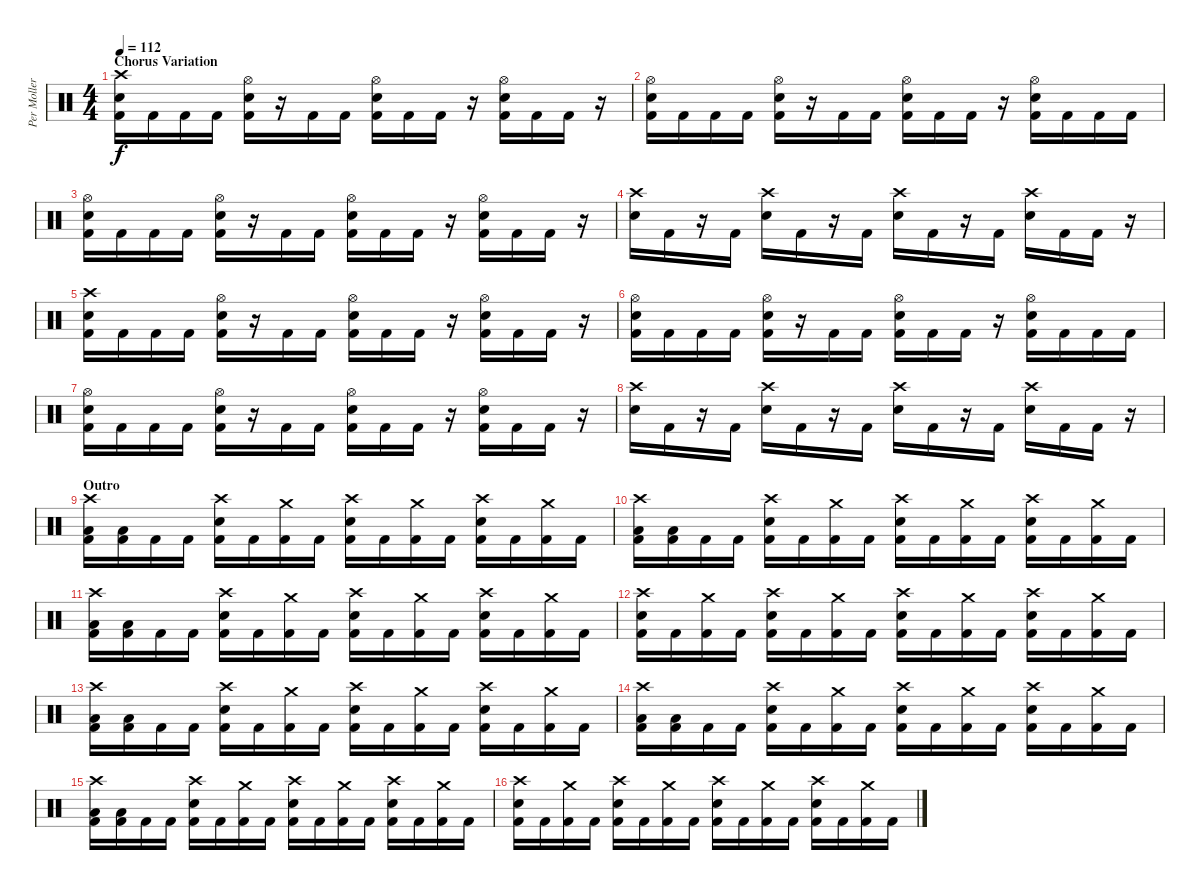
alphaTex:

\track ("Per Moller Jensen" "Per Moller") {instrument percussion}
\staff {score}
\articulation defaults
\ts (4 4)
\section ("" "Chorus Variation")
\tempo 112
\clef neutral
\ks c
("Crash high (hit)" "Electric Snare (hit)" "Kick (hit) 2").16{dy f} "Kick (hit) 2".16 "Kick (hit) 2".16 "Kick (hit) 2".16 ("Hi-Hat (open)" "Electric Snare (hit)" "Kick (hit) 2").16 r.16 "Kick (hit) 2".16 "Kick (hit) 2".16 ("Hi-Hat (open)" "Electric Snare (hit)" "Kick (hit) 2").16 "Kick (hit) 2".16 "Kick (hit) 2".16 r.16 ("Hi-Hat (open)" "Electric Snare (hit)" "Kick (hit) 2").16 "Kick (hit) 2".16 "Kick (hit) 2".16 r.16 |
("Hi-Hat (open)" "Electric Snare (hit)" "Kick (hit) 2").16 "Kick (hit) 2".16 "Kick (hit) 2".16 "Kick (hit) 2".16 ("Hi-Hat (open)" "Electric Snare (hit)" "Kick (hit) 2").16 r.16 "Kick (hit) 2".16 "Kick (hit) 2".16 ("Hi-Hat (open)" "Electric Snare (hit)" "Kick (hit) 2").16 "Kick (hit) 2".16 "Kick (hit) 2".16 r.16 ("Hi-Hat (open)" "Electric Snare (hit)" "Kick (hit) 2").16 "Kick (hit) 2".16 "Kick (hit) 2".16 "Kick (hit) 2".16 |
("Hi-Hat (open)" "Electric Snare (hit)" "Kick (hit) 2").16 "Kick (hit) 2".16 "Kick (hit) 2".16 "Kick (hit) 2".16 ("Hi-Hat (open)" "Electric Snare (hit)" "Kick (hit) 2").16 r.16 "Kick (hit) 2".16 "Kick (hit) 2".16 ("Hi-Hat (open)" "Electric Snare (hit)" "Kick (hit) 2").16 "Kick (hit) 2".16 "Kick (hit) 2".16 r.16 ("Hi-Hat (open)" "Electric Snare (hit)" "Kick (hit) 2").16 "Kick (hit) 2".16 "Kick (hit) 2".16 r.16 |
("Crash high (hit)" "Electric Snare (hit)").16 "Kick (hit) 2".16 r.16 "Kick (hit) 2".16 ("Crash high (hit)" "Electric Snare (hit)").16 "Kick (hit) 2".16 r.16 "Kick (hit) 2".16 ("Crash high (hit)" "Electric Snare (hit)").16 "Kick (hit) 2".16 r.16 "Kick (hit) 2".16 ("Crash high (hit)" "Electric Snare (hit)").16 "Kick (hit) 2".16 "Kick (hit) 2".16 r.16 |
("Crash high (hit)" "Electric Snare (hit)" "Kick (hit) 2").16 "Kick (hit) 2".16 "Kick (hit) 2".16 "Kick (hit) 2".16 ("Hi-Hat (open)" "Electric Snare (hit)" "Kick (hit) 2").16 r.16 "Kick (hit) 2".16 "Kick (hit) 2".16 ("Hi-Hat (open)" "Electric Snare (hit)" "Kick (hit) 2").16 "Kick (hit) 2".16 "Kick (hit) 2".16 r.16 ("Hi-Hat (open)" "Electric Snare (hit)" "Kick (hit) 2").16 "Kick (hit) 2".16 "Kick (hit) 2".16 r.16 |
("Hi-Hat (open)" "Electric Snare (hit)" "Kick (hit) 2").16 "Kick (hit) 2".16 "Kick (hit) 2".16 "Kick (hit) 2".16 ("Hi-Hat (open)" "Electric Snare (hit)" "Kick (hit) 2").16 r.16 "Kick (hit) 2".16 "Kick (hit) 2".16 ("Hi-Hat (open)" "Electric Snare (hit)" "Kick (hit) 2").16 "Kick (hit) 2".16 "Kick (hit) 2".16 r.16 ("Hi-Hat (open)" "Electric Snare (hit)" "Kick (hit) 2").16 "Kick (hit) 2".16 "Kick (hit) 2".16 "Kick (hit) 2".16 |
("Hi-Hat (open)" "Electric Snare (hit)" "Kick (hit) 2").16 "Kick (hit) 2".16 "Kick (hit) 2".16 "Kick (hit) 2".16 ("Hi-Hat (open)" "Electric Snare (hit)" "Kick (hit) 2").16 r.16 "Kick (hit) 2".16 "Kick (hit) 2".16 ("Hi-Hat (open)" "Electric Snare (hit)" "Kick (hit) 2").16 "Kick (hit) 2".16 "Kick (hit) 2".16 r.16 ("Hi-Hat (open)" "Electric Snare (hit)" "Kick (hit) 2").16 "Kick (hit) 2".16 "Kick (hit) 2".16 r.16 |
("Crash high (hit)" "Electric Snare (hit)").16 "Kick (hit) 2".16 r.16 "Kick (hit) 2".16 ("Crash high (hit)" "Electric Snare (hit)").16 "Kick (hit) 2".16 r.16 "Kick (hit) 2".16 ("Crash high (hit)" "Electric Snare (hit)").16 "Kick (hit) 2".16 r.16 "Kick (hit) 2".16 ("Crash high (hit)" "Electric Snare (hit)").16 "Kick (hit) 2".16 "Kick (hit) 2".16 r.16 |
\section ("" "Outro")
("Crash high (hit)" "Low Floor Tom (hit)" "Kick (hit) 2").16 ("Low Floor Tom (hit)" "Kick (hit) 2").16 "Kick (hit) 2".16 "Kick (hit) 2".16 ("Crash high (hit)" "Electric Snare (hit)" "Kick (hit) 2").16 "Kick (hit) 2".16 ("Crash medium (hit)" "Kick (hit) 2").16 "Kick (hit) 2".16 ("Crash high (hit)" "Electric Snare (hit)" "Kick (hit) 2").16 "Kick (hit) 2".16 ("Crash medium (hit)" "Kick (hit) 2").16 "Kick (hit) 2".16 ("Crash high (hit)" "Electric Snare (hit)" "Kick (hit) 2").16 "Kick (hit) 2".16 ("Crash medium (hit)" "Kick (hit) 2").16 "Kick (hit) 2".16 |
("Crash high (hit)" "Low Floor Tom (hit)" "Kick (hit) 2").16 ("Low Floor Tom (hit)" "Kick (hit) 2").16 "Kick (hit) 2".16 "Kick (hit) 2".16 ("Crash high (hit)" "Electric Snare (hit)" "Kick (hit) 2").16 "Kick (hit) 2".16 ("Crash medium (hit)" "Kick (hit) 2").16 "Kick (hit) 2".16 ("Crash high (hit)" "Electric Snare (hit)" "Kick (hit) 2").16 "Kick (hit) 2".16 ("Crash medium (hit)" "Kick (hit) 2").16 "Kick (hit) 2".16 ("Crash high (hit)" "Electric Snare (hit)" "Kick (hit) 2").16 "Kick (hit) 2".16 ("Crash medium (hit)" "Kick (hit) 2").16 "Kick (hit) 2".16 |
("Crash high (hit)" "Low Floor Tom (hit)" "Kick (hit) 2").16 ("Low Floor Tom (hit)" "Kick (hit) 2").16 "Kick (hit) 2".16 "Kick (hit) 2".16 ("Crash high (hit)" "Electric Snare (hit)" "Kick (hit) 2").16 "Kick (hit) 2".16 ("Crash medium (hit)" "Kick (hit) 2").16 "Kick (hit) 2".16 ("Crash high (hit)" "Electric Snare (hit)" "Kick (hit) 2").16 "Kick (hit) 2".16 ("Crash medium (hit)" "Kick (hit) 2").16 "Kick (hit) 2".16 ("Crash high (hit)" "Electric Snare (hit)" "Kick (hit) 2").16 "Kick (hit) 2".16 ("Crash medium (hit)" "Kick (hit) 2").16 "Kick (hit) 2".16 |
("Crash high (hit)" "Electric Snare (hit)" "Kick (hit) 2").16 "Kick (hit) 2".16 ("Crash medium (hit)" "Kick (hit) 2").16 "Kick (hit) 2".16 ("Crash high (hit)" "Electric Snare (hit)" "Kick (hit) 2").16 "Kick (hit) 2".16 ("Crash medium (hit)" "Kick (hit) 2").16 "Kick (hit) 2".16 ("Crash high (hit)" "Electric Snare (hit)" "Kick (hit) 2").16 "Kick (hit) 2".16 ("Crash medium (hit)" "Kick (hit) 2").16 "Kick (hit) 2".16 ("Crash high (hit)" "Electric Snare (hit)" "Kick (hit) 2").16 "Kick (hit) 2".16 ("Crash medium (hit)" "Kick (hit) 2").16 "Kick (hit) 2".16 |
("Crash high (hit)" "Low Floor Tom (hit)" "Kick (hit) 2").16 ("Low Floor Tom (hit)" "Kick (hit) 2").16 "Kick (hit) 2".16 "Kick (hit) 2".16 ("Crash high (hit)" "Electric Snare (hit)" "Kick (hit) 2").16 "Kick (hit) 2".16 ("Crash medium (hit)" "Kick (hit) 2").16 "Kick (hit) 2".16 ("Crash high (hit)" "Electric Snare (hit)" "Kick (hit) 2").16 "Kick (hit) 2".16 ("Crash medium (hit)" "Kick (hit) 2").16 "Kick (hit) 2".16 ("Crash high (hit)" "Electric Snare (hit)" "Kick (hit) 2").16 "Kick (hit) 2".16 ("Crash medium (hit)" "Kick (hit) 2").16 "Kick (hit) 2".16 |
("Crash high (hit)" "Low Floor Tom (hit)" "Kick (hit) 2").16 ("Low Floor Tom (hit)" "Kick (hit) 2").16 "Kick (hit) 2".16 "Kick (hit) 2".16 ("Crash high (hit)" "Electric Snare (hit)" "Kick (hit) 2").16 "Kick (hit) 2".16 ("Crash medium (hit)" "Kick (hit) 2").16 "Kick (hit) 2".16 ("Crash high (hit)" "Electric Snare (hit)" "Kick (hit) 2").16 "Kick (hit) 2".16 ("Crash medium (hit)" "Kick (hit) 2").16 "Kick (hit) 2".16 ("Crash high (hit)" "Electric Snare (hit)" "Kick (hit) 2").16 "Kick (hit) 2".16 ("Crash medium (hit)" "Kick (hit) 2").16 "Kick (hit) 2".16 |
("Crash high (hit)" "Low Floor Tom (hit)" "Kick (hit) 2").16 ("Low Floor Tom (hit)" "Kick (hit) 2").16 "Kick (hit) 2".16 "Kick (hit) 2".16 ("Crash high (hit)" "Electric Snare (hit)" "Kick (hit) 2").16 "Kick (hit) 2".16 ("Crash medium (hit)" "Kick (hit) 2").16 "Kick (hit) 2".16 ("Crash high (hit)" "Electric Snare (hit)" "Kick (hit) 2").16 "Kick (hit) 2".16 ("Crash medium (hit)" "Kick (hit) 2").16 "Kick (hit) 2".16 ("Crash high (hit)" "Electric Snare (hit)" "Kick (hit) 2").16 "Kick (hit) 2".16 ("Crash medium (hit)" "Kick (hit) 2").16 "Kick (hit) 2".16 |
("Crash high (hit)" "Electric Snare (hit)" "Kick (hit) 2").16 "Kick (hit) 2".16 ("Crash medium (hit)" "Kick (hit) 2").16 "Kick (hit) 2".16 ("Crash high (hit)" "Electric Snare (hit)" "Kick (hit) 2").16 "Kick (hit) 2".16 ("Crash medium (hit)" "Kick (hit) 2").16 "Kick (hit) 2".16 ("Crash high (hit)" "Electric Snare (hit)" "Kick (hit) 2").16 "Kick (hit) 2".16 ("Crash medium (hit)" "Kick (hit) 2").16 "Kick (hit) 2".16 ("Crash high (hit)" "Electric Snare (hit)" "Kick (hit) 2").16 "Kick (hit) 2".16 ("Crash medium (hit)" "Kick (hit) 2").16 "Kick (hit) 2".16
